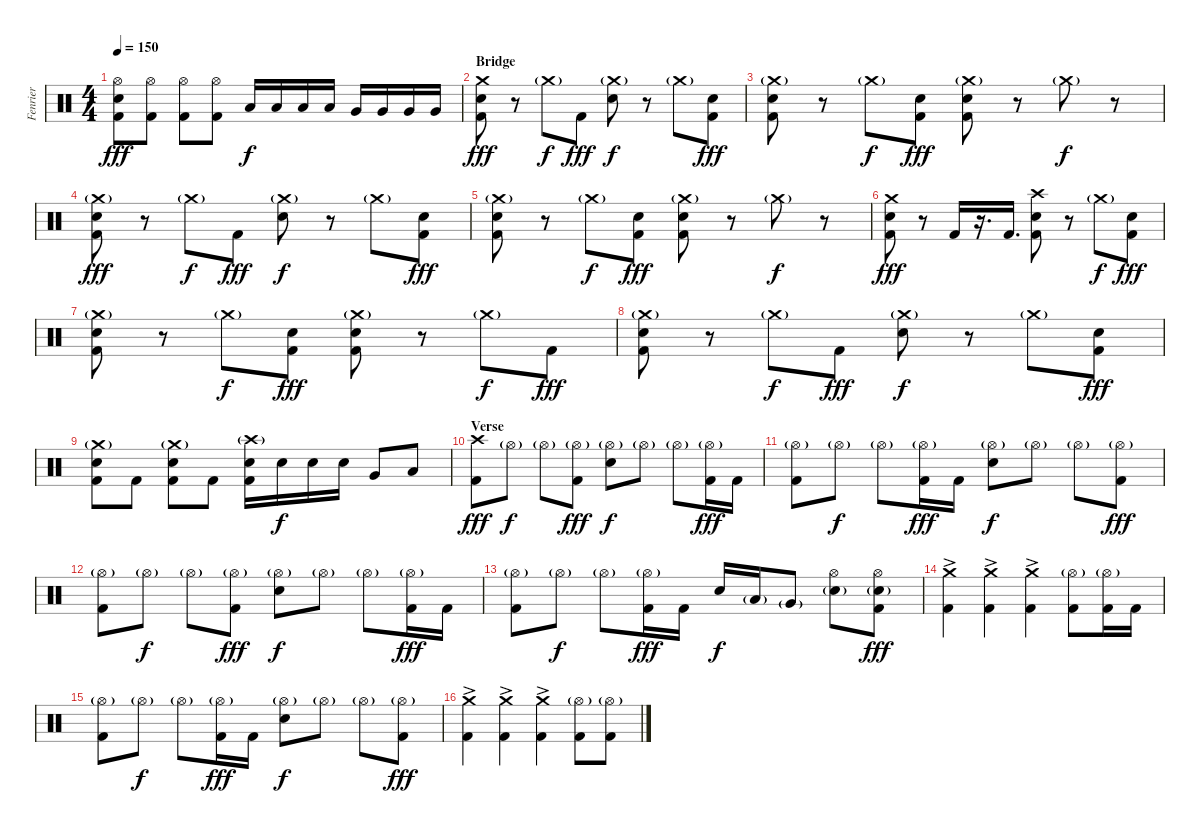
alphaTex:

\track ("Fenrier" "Fenrier") {instrument percussion}
\staff {score}
\articulation defaults
\ts (4 4)
\tempo 150
\clef neutral
\ks c
("Hi-Hat (open)" "Electric Snare (hit)" "Kick (hit) 2").8{dy fff} ("Hi-Hat (open)" "Kick (hit) 2").8 ("Hi-Hat (open)" "Kick (hit) 2").8 ("Hi-Hat (open)" "Kick (hit) 2").8 "Low Tom (hit)".16{dy f} "Low Tom (hit)".16 "Low Tom (hit)".16 "Low Tom (hit)".16 "Very Low Tom (hit)".16 "Very Low Tom (hit)".16 "Very Low Tom (hit)".16 "Very Low Tom (hit)".16 |
\section ("" "Bridge")
("Crash medium (hit)" "Electric Snare (hit)" "Kick (hit) 2").8{dy fff} r.8 "Crash medium (hit)"{g}.8{dy f} "Kick (hit) 2".8{dy fff} ("Crash medium (hit)"{g} "Electric Snare (hit)").8{dy f} r.8 "Crash medium (hit)"{g}.8 ("Electric Snare (hit)" "Kick (hit) 2").8{dy fff} |
("Crash medium (hit)"{g} "Electric Snare (hit)" "Kick (hit) 2").8 r.8 "Crash medium (hit)"{g}.8{dy f} ("Electric Snare (hit)" "Kick (hit) 2").8{dy fff} ("Crash medium (hit)"{g} "Electric Snare (hit)" "Kick (hit) 2").8 r.8 "Crash medium (hit)"{g}.8{dy f} r.8 |
("Crash medium (hit)"{g} "Electric Snare (hit)" "Kick (hit) 2").8{dy fff} r.8 "Crash medium (hit)"{g}.8{dy f} "Kick (hit) 2".8{dy fff} ("Crash medium (hit)"{g} "Electric Snare (hit)").8{dy f} r.8 "Crash medium (hit)"{g}.8 ("Electric Snare (hit)" "Kick (hit) 2").8{dy fff} |
("Crash medium (hit)"{g} "Electric Snare (hit)" "Kick (hit) 2").8 r.8 "Crash medium (hit)"{g}.8{dy f} ("Electric Snare (hit)" "Kick (hit) 2").8{dy fff} ("Crash medium (hit)"{g} "Electric Snare (hit)" "Kick (hit) 2").8 r.8 "Crash medium (hit)"{g}.8{dy f} r.8 |
("Crash medium (hit)" "Electric Snare (hit)" "Kick (hit) 2").8{dy fff} r.8 "Kick (hit) 2".16 r.16{d} "Kick (hit) 2".16{d} ("Crash high (hit)" "Electric Snare (hit)" "Kick (hit) 2").8 r.8 "Crash medium (hit)"{g}.8{dy f} ("Electric Snare (hit)" "Kick (hit) 2").8{dy fff} |
("Crash medium (hit)"{g} "Electric Snare (hit)" "Kick (hit) 2").8 r.8 "Crash medium (hit)"{g}.8{dy f} ("Electric Snare (hit)" "Kick (hit) 2").8{dy fff} ("Crash medium (hit)"{g} "Electric Snare (hit)" "Kick (hit) 2").8 r.8 "Crash medium (hit)"{g}.8{dy f} "Kick (hit) 2".8{dy fff} |
("Crash medium (hit)"{g} "Electric Snare (hit)" "Kick (hit) 2").8 r.8 "Crash medium (hit)"{g}.8{dy f} "Kick (hit) 2".8{dy fff} ("Crash medium (hit)"{g} "Electric Snare (hit)").8{dy f} r.8 "Crash medium (hit)"{g}.8 ("Electric Snare (hit)" "Kick (hit) 2").8{dy fff} |
("Crash medium (hit)"{g} "Electric Snare (hit)" "Kick (hit) 2").8 "Kick (hit) 2".8 ("Crash medium (hit)"{g} "Electric Snare (hit)" "Kick (hit) 2").8 "Kick (hit) 2".8 ("Crash high (hit)"{g} "Electric Snare (hit)" "Kick (hit) 2").16 "Electric Snare (hit)".16{dy f} "Electric Snare (hit)".16 "Electric Snare (hit)".16 "Very Low Tom (hit)".8 "Low Floor Tom (hit)".8 |
\section ("" "Verse")
("Crash high (hit)" "Kick (hit) 2").8{dy fff} "Hi-Hat (open)"{g}.8{dy f} "Hi-Hat (open)"{g}.8 ("Hi-Hat (open)"{g} "Kick (hit) 2").8{dy fff} ("Hi-Hat (open)"{g} "Electric Snare (hit)").8{dy f} "Hi-Hat (open)"{g}.8 "Hi-Hat (open)"{g}.8 ("Hi-Hat (open)"{g} "Kick (hit) 2").16{dy fff} "Kick (hit) 2".16 |
("Hi-Hat (open)"{g} "Kick (hit) 2").8 "Hi-Hat (open)"{g}.8{dy f} "Hi-Hat (open)"{g}.8 ("Hi-Hat (open)"{g} "Kick (hit) 2").16{dy fff} "Kick (hit) 2".16 ("Hi-Hat (open)"{g} "Electric Snare (hit)").8{dy f} "Hi-Hat (open)"{g}.8 "Hi-Hat (open)"{g}.8 ("Hi-Hat (open)"{g} "Kick (hit) 2").8{dy fff} |
("Hi-Hat (open)"{g} "Kick (hit) 2").8 "Hi-Hat (open)"{g}.8{dy f} "Hi-Hat (open)"{g}.8 ("Hi-Hat (open)"{g} "Kick (hit) 2").8{dy fff} ("Hi-Hat (open)"{g} "Electric Snare (hit)").8{dy f} "Hi-Hat (open)"{g}.8 "Hi-Hat (open)"{g}.8 ("Hi-Hat (open)"{g} "Kick (hit) 2").16{dy fff} "Kick (hit) 2".16 |
("Hi-Hat (open)"{g} "Kick (hit) 2").8 "Hi-Hat (open)"{g}.8{dy f} "Hi-Hat (open)"{g}.8 ("Hi-Hat (open)"{g} "Kick (hit) 2").16{dy fff} "Kick (hit) 2".16 "Electric Snare (hit)".16{dy f} "Low Tom (hit)"{g}.16 "Very Low Tom (hit)"{g}.8 ("Hi-Hat (open)" "Electric Snare (hit)"{g}).8 ("Hi-Hat (open)" "Electric Snare (hit)"{g} "Kick (hit) 2").8{dy fff} |
("Crash medium (hit)" "Kick (hit) 2"{ac}).4 ("Crash medium (hit)" "Kick (hit) 2"{ac}).4 ("Crash medium (hit)" "Kick (hit) 2"{ac}).4 ("Hi-Hat (open)"{g} "Kick (hit) 2").8 ("Hi-Hat (open)"{g} "Kick (hit) 2").16 "Kick (hit) 2".16 |
("Hi-Hat (open)"{g} "Kick (hit) 2").8 "Hi-Hat (open)"{g}.8{dy f} "Hi-Hat (open)"{g}.8 ("Hi-Hat (open)"{g} "Kick (hit) 2").16{dy fff} "Kick (hit) 2".16 ("Hi-Hat (open)"{g} "Electric Snare (hit)").8{dy f} "Hi-Hat (open)"{g}.8 "Hi-Hat (open)"{g}.8 ("Hi-Hat (open)"{g} "Kick (hit) 2").8{dy fff} |
("Crash medium (hit)" "Kick (hit) 2"{ac}).4 ("Crash medium (hit)" "Kick (hit) 2"{ac}).4 ("Crash medium (hit)" "Kick (hit) 2"{ac}).4 ("Hi-Hat (open)"{g} "Kick (hit) 2").8 ("Hi-Hat (open)"{g} "Kick (hit) 2").8
